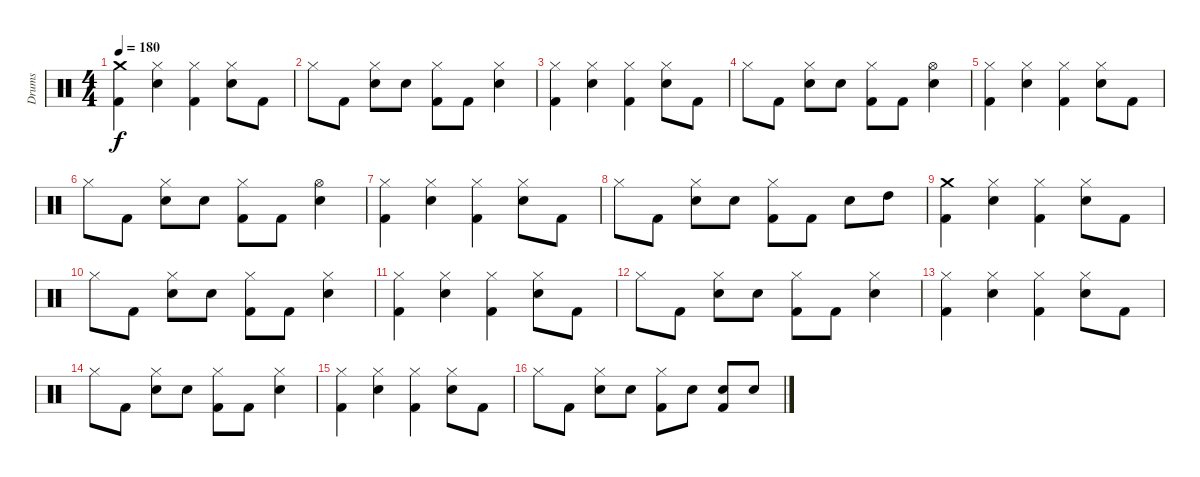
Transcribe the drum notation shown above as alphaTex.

\track ("Drums" "Drums") {instrument percussion}
\staff {score}
\articulation defaults
\ts (4 4)
\tempo 180
\clef neutral
\ks c
("Crash medium (hit)" "Kick (hit) 2").4{dy f} ("Hi-Hat (closed)" "Snare (hit) 2").4 ("Hi-Hat (closed)" "Kick (hit) 2").4 ("Hi-Hat (closed)" "Snare (hit) 2").8 "Kick (hit) 2".8 |
"Hi-Hat (closed)".8 "Kick (hit) 2".8 ("Hi-Hat (closed)" "Snare (hit) 2").8 "Snare (hit) 2".8 ("Hi-Hat (closed)" "Kick (hit) 2").8 "Kick (hit) 2".8 ("Hi-Hat (closed)" "Snare (hit) 2").4 |
("Hi-Hat (closed)" "Kick (hit) 2").4 ("Hi-Hat (closed)" "Snare (hit) 2").4 ("Hi-Hat (closed)" "Kick (hit) 2").4 ("Hi-Hat (closed)" "Snare (hit) 2").8 "Kick (hit) 2".8 |
"Hi-Hat (closed)".8 "Kick (hit) 2".8 ("Hi-Hat (closed)" "Snare (hit) 2").8 "Snare (hit) 2".8 ("Hi-Hat (closed)" "Kick (hit) 2").8 "Kick (hit) 2".8 ("Hi-Hat (open)" "Snare (hit) 2").4 |
("Hi-Hat (closed)" "Kick (hit) 2").4 ("Hi-Hat (closed)" "Snare (hit) 2").4 ("Hi-Hat (closed)" "Kick (hit) 2").4 ("Hi-Hat (closed)" "Snare (hit) 2").8 "Kick (hit) 2".8 |
"Hi-Hat (closed)".8 "Kick (hit) 2".8 ("Hi-Hat (closed)" "Snare (hit) 2").8 "Snare (hit) 2".8 ("Hi-Hat (closed)" "Kick (hit) 2").8 "Kick (hit) 2".8 ("Hi-Hat (open)" "Snare (hit) 2").4 |
("Hi-Hat (closed)" "Kick (hit) 2").4 ("Hi-Hat (closed)" "Snare (hit) 2").4 ("Hi-Hat (closed)" "Kick (hit) 2").4 ("Hi-Hat (closed)" "Snare (hit) 2").8 "Kick (hit) 2".8 |
"Hi-Hat (closed)".8 "Kick (hit) 2".8 ("Hi-Hat (closed)" "Snare (hit) 2").8 "Snare (hit) 2".8 ("Hi-Hat (closed)" "Kick (hit) 2").8 "Kick (hit) 2".8 "Snare (hit) 2".8 "High Tom (hit)".8 |
("Crash medium (hit)" "Kick (hit) 2").4 ("Hi-Hat (closed)" "Snare (hit) 2").4 ("Hi-Hat (closed)" "Kick (hit) 2").4 ("Hi-Hat (closed)" "Snare (hit) 2").8 "Kick (hit) 2".8 |
"Hi-Hat (closed)".8 "Kick (hit) 2".8 ("Hi-Hat (closed)" "Snare (hit) 2").8 "Snare (hit) 2".8 ("Hi-Hat (closed)" "Kick (hit) 2").8 "Kick (hit) 2".8 ("Hi-Hat (closed)" "Snare (hit) 2").4 |
("Hi-Hat (closed)" "Kick (hit) 2").4 ("Hi-Hat (closed)" "Snare (hit) 2").4 ("Hi-Hat (closed)" "Kick (hit) 2").4 ("Hi-Hat (closed)" "Snare (hit) 2").8 "Kick (hit) 2".8 |
"Hi-Hat (closed)".8 "Kick (hit) 2".8 ("Hi-Hat (closed)" "Snare (hit) 2").8 "Snare (hit) 2".8 ("Hi-Hat (closed)" "Kick (hit) 2").8 "Kick (hit) 2".8 ("Hi-Hat (closed)" "Snare (hit) 2").4 |
("Hi-Hat (closed)" "Kick (hit) 2").4 ("Hi-Hat (closed)" "Snare (hit) 2").4 ("Hi-Hat (closed)" "Kick (hit) 2").4 ("Hi-Hat (closed)" "Snare (hit) 2").8 "Kick (hit) 2".8 |
"Hi-Hat (closed)".8 "Kick (hit) 2".8 ("Hi-Hat (closed)" "Snare (hit) 2").8 "Snare (hit) 2".8 ("Hi-Hat (closed)" "Kick (hit) 2").8 "Kick (hit) 2".8 ("Hi-Hat (closed)" "Snare (hit) 2").4 |
("Hi-Hat (closed)" "Kick (hit) 2").4 ("Hi-Hat (closed)" "Snare (hit) 2").4 ("Hi-Hat (closed)" "Kick (hit) 2").4 ("Hi-Hat (closed)" "Snare (hit) 2").8 "Kick (hit) 2".8 |
"Hi-Hat (closed)".8 "Kick (hit) 2".8 ("Hi-Hat (closed)" "Snare (hit) 2").8 "Snare (hit) 2".8 ("Hi-Hat (closed)" "Kick (hit) 2").8 "Snare (hit) 2".8 ("Snare (hit) 2" "Kick (hit) 2").8 "Snare (hit) 2".8
